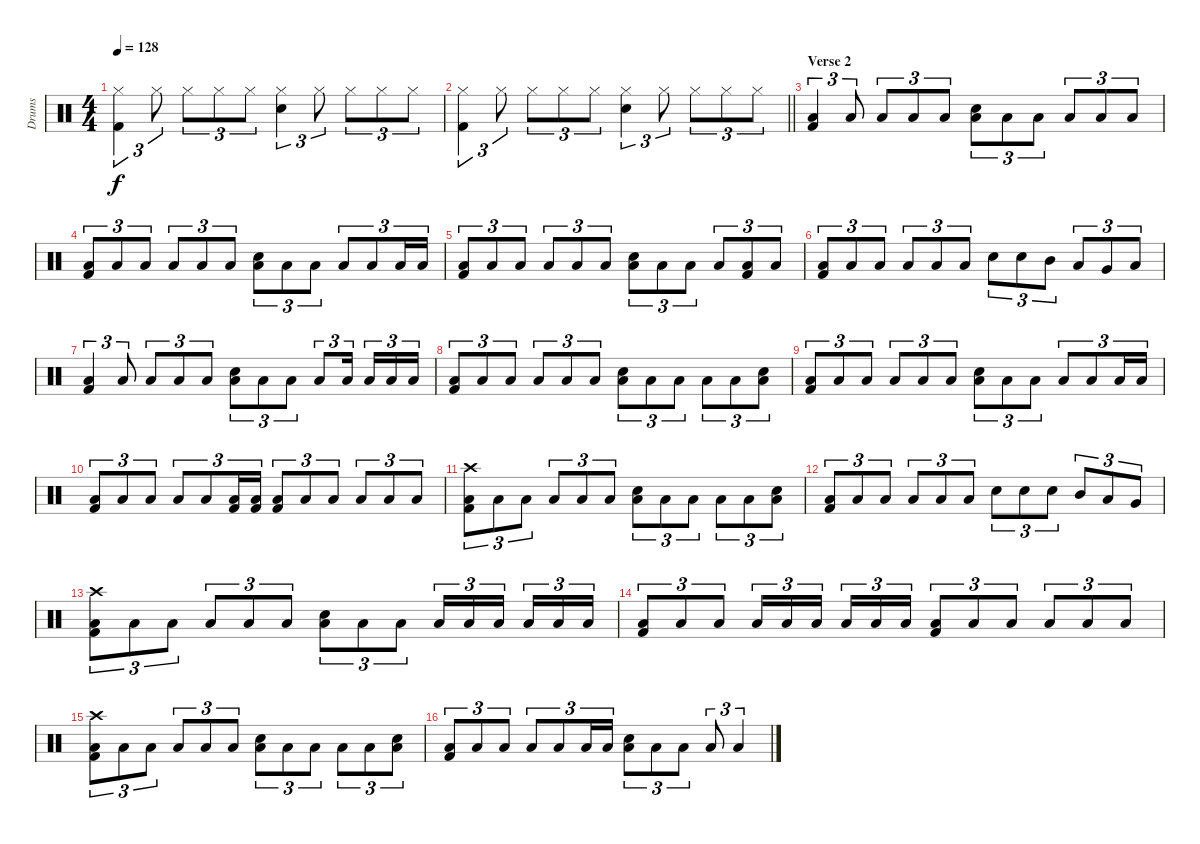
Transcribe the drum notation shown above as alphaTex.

\track ("Drums" "Drums") {instrument percussion}
\staff {score}
\articulation defaults
\ts (4 4)
\tempo 128
\clef neutral
\ks c
("Hi-Hat (closed)" "Kick (hit) 2").4{tu (3 2) dy f} "Hi-Hat (closed)".8{tu (3 2)} "Hi-Hat (closed)".8{tu (3 2)} "Hi-Hat (closed)".8{tu (3 2)} "Hi-Hat (closed)".8{tu (3 2)} ("Hi-Hat (closed)" "Electric Snare (hit)").4{tu (3 2)} "Hi-Hat (closed)".8{tu (3 2)} "Hi-Hat (closed)".8{tu (3 2)} "Hi-Hat (closed)".8{tu (3 2)} "Hi-Hat (closed)".8{tu (3 2)} |
\barLineRight lightlight
("Hi-Hat (closed)" "Kick (hit) 2").4{tu (3 2)} "Hi-Hat (closed)".8{tu (3 2)} "Hi-Hat (closed)".8{tu (3 2)} "Hi-Hat (closed)".8{tu (3 2)} "Hi-Hat (closed)".8{tu (3 2)} ("Hi-Hat (closed)" "Electric Snare (hit)").4{tu (3 2)} "Hi-Hat (closed)".8{tu (3 2)} "Hi-Hat (closed)".8{tu (3 2)} "Hi-Hat (closed)".8{tu (3 2)} "Hi-Hat (closed)".8{tu (3 2)} |
\section ("" "Verse 2")
("Low Floor Tom (hit)" "Kick (hit) 2").4{tu (3 2)} "Low Floor Tom (hit)".8{tu (3 2)} "Low Floor Tom (hit)".8{tu (3 2)} "Low Floor Tom (hit)".8{tu (3 2)} "Low Floor Tom (hit)".8{tu (3 2)} ("Low Floor Tom (hit)" "Electric Snare (hit)").8{tu (3 2)} "Low Floor Tom (hit)".8{tu (3 2)} "Low Floor Tom (hit)".8{tu (3 2)} "Low Floor Tom (hit)".8{tu (3 2)} "Low Floor Tom (hit)".8{tu (3 2)} "Low Floor Tom (hit)".8{tu (3 2)} |
("Low Floor Tom (hit)" "Kick (hit) 2").8{tu (3 2)} "Low Floor Tom (hit)".8{tu (3 2)} "Low Floor Tom (hit)".8{tu (3 2)} "Low Floor Tom (hit)".8{tu (3 2)} "Low Floor Tom (hit)".8{tu (3 2)} "Low Floor Tom (hit)".8{tu (3 2)} ("Low Floor Tom (hit)" "Electric Snare (hit)").8{tu (3 2)} "Low Floor Tom (hit)".8{tu (3 2)} "Low Floor Tom (hit)".8{tu (3 2)} "Low Floor Tom (hit)".8{tu (3 2)} "Low Floor Tom (hit)".8{tu (3 2)} "Low Floor Tom (hit)".16{tu (3 2)} "Low Floor Tom (hit)".16{tu (3 2)} |
("Low Floor Tom (hit)" "Kick (hit) 2").8{tu (3 2)} "Low Floor Tom (hit)".8{tu (3 2)} "Low Floor Tom (hit)".8{tu (3 2)} "Low Floor Tom (hit)".8{tu (3 2)} "Low Floor Tom (hit)".8{tu (3 2)} "Low Floor Tom (hit)".8{tu (3 2)} ("Low Floor Tom (hit)" "Electric Snare (hit)").8{tu (3 2)} "Low Floor Tom (hit)".8{tu (3 2)} "Low Floor Tom (hit)".8{tu (3 2)} "Low Floor Tom (hit)".8{tu (3 2)} ("Low Floor Tom (hit)" "Kick (hit) 2").8{tu (3 2)} "Low Floor Tom (hit)".8{tu (3 2)} |
("Low Floor Tom (hit)" "Kick (hit) 2").8{tu (3 2)} "Low Floor Tom (hit)".8{tu (3 2)} "Low Floor Tom (hit)".8{tu (3 2)} "Low Floor Tom (hit)".8{tu (3 2)} "Low Floor Tom (hit)".8{tu (3 2)} "Low Floor Tom (hit)".8{tu (3 2)} "Electric Snare (hit)".8{tu (3 2)} "Electric Snare (hit)".8{tu (3 2)} "Mid Tom (hit)".8{tu (3 2)} "Low Tom (hit)".8{tu (3 2)} "Very Low Tom (hit)".8{tu (3 2)} "Low Floor Tom (hit)".8{tu (3 2)} |
("Low Floor Tom (hit)" "Kick (hit) 2").4{tu (3 2)} "Low Floor Tom (hit)".8{tu (3 2)} "Low Floor Tom (hit)".8{tu (3 2)} "Low Floor Tom (hit)".8{tu (3 2)} "Low Floor Tom (hit)".8{tu (3 2)} ("Low Floor Tom (hit)" "Electric Snare (hit)").8{tu (3 2)} "Low Floor Tom (hit)".8{tu (3 2)} "Low Floor Tom (hit)".8{tu (3 2)} "Low Floor Tom (hit)".8{tu (3 2)} "Low Floor Tom (hit)".16{tu (3 2) beam splitsecondary} "Low Floor Tom (hit)".16{tu (3 2)} "Low Floor Tom (hit)".16{tu (3 2)} "Low Floor Tom (hit)".16{tu (3 2)} |
("Low Floor Tom (hit)" "Kick (hit) 2").8{tu (3 2)} "Low Floor Tom (hit)".8{tu (3 2)} "Low Floor Tom (hit)".8{tu (3 2)} "Low Floor Tom (hit)".8{tu (3 2)} "Low Floor Tom (hit)".8{tu (3 2)} "Low Floor Tom (hit)".8{tu (3 2)} ("Low Floor Tom (hit)" "Electric Snare (hit)").8{tu (3 2)} "Low Floor Tom (hit)".8{tu (3 2)} "Low Floor Tom (hit)".8{tu (3 2)} "Low Floor Tom (hit)".8{tu (3 2)} "Low Floor Tom (hit)".8{tu (3 2)} ("Low Floor Tom (hit)" "Electric Snare (hit)").8{tu (3 2)} |
("Low Floor Tom (hit)" "Kick (hit) 2").8{tu (3 2)} "Low Floor Tom (hit)".8{tu (3 2)} "Low Floor Tom (hit)".8{tu (3 2)} "Low Floor Tom (hit)".8{tu (3 2)} "Low Floor Tom (hit)".8{tu (3 2)} "Low Floor Tom (hit)".8{tu (3 2)} ("Low Floor Tom (hit)" "Electric Snare (hit)").8{tu (3 2)} "Low Floor Tom (hit)".8{tu (3 2)} "Low Floor Tom (hit)".8{tu (3 2)} "Low Floor Tom (hit)".8{tu (3 2)} "Low Floor Tom (hit)".8{tu (3 2)} "Low Floor Tom (hit)".16{tu (3 2)} "Low Floor Tom (hit)".16{tu (3 2)} |
("Low Floor Tom (hit)" "Kick (hit) 2").8{tu (3 2)} "Low Floor Tom (hit)".8{tu (3 2)} "Low Floor Tom (hit)".8{tu (3 2)} "Low Floor Tom (hit)".8{tu (3 2)} "Low Floor Tom (hit)".8{tu (3 2)} ("Low Floor Tom (hit)" "Kick (hit) 2").16{tu (3 2)} ("Low Floor Tom (hit)" "Kick (hit) 2").16{tu (3 2)} ("Low Floor Tom (hit)" "Kick (hit) 2").8{tu (3 2)} "Low Floor Tom (hit)".8{tu (3 2)} "Low Floor Tom (hit)".8{tu (3 2)} "Low Floor Tom (hit)".8{tu (3 2)} "Low Floor Tom (hit)".8{tu (3 2)} "Low Floor Tom (hit)".8{tu (3 2)} |
("Crash high (hit)" "Low Floor Tom (hit)" "Kick (hit) 2").8{tu (3 2)} "Low Floor Tom (hit)".8{tu (3 2)} "Low Floor Tom (hit)".8{tu (3 2)} "Low Floor Tom (hit)".8{tu (3 2)} "Low Floor Tom (hit)".8{tu (3 2)} "Low Floor Tom (hit)".8{tu (3 2)} ("Low Floor Tom (hit)" "Electric Snare (hit)").8{tu (3 2)} "Low Floor Tom (hit)".8{tu (3 2)} "Low Floor Tom (hit)".8{tu (3 2)} "Low Floor Tom (hit)".8{tu (3 2)} "Low Floor Tom (hit)".8{tu (3 2)} ("Low Floor Tom (hit)" "Electric Snare (hit)").8{tu (3 2)} |
("Low Floor Tom (hit)" "Kick (hit) 2").8{tu (3 2)} "Low Floor Tom (hit)".8{tu (3 2)} "Low Floor Tom (hit)".8{tu (3 2)} "Low Floor Tom (hit)".8{tu (3 2)} "Low Floor Tom (hit)".8{tu (3 2)} "Low Floor Tom (hit)".8{tu (3 2)} "Electric Snare (hit)".8{tu (3 2)} "Electric Snare (hit)".8{tu (3 2)} "Electric Snare (hit)".8{tu (3 2)} "Mid Tom (hit)".8{tu (3 2)} "Low Tom (hit)".8{tu (3 2)} "Very Low Tom (hit)".8{tu (3 2)} |
("Crash high (hit)" "Low Floor Tom (hit)" "Kick (hit) 2").8{tu (3 2)} "Low Floor Tom (hit)".8{tu (3 2)} "Low Floor Tom (hit)".8{tu (3 2)} "Low Floor Tom (hit)".8{tu (3 2)} "Low Floor Tom (hit)".8{tu (3 2)} "Low Floor Tom (hit)".8{tu (3 2)} ("Low Floor Tom (hit)" "Electric Snare (hit)").8{tu (3 2)} "Low Floor Tom (hit)".8{tu (3 2)} "Low Floor Tom (hit)".8{tu (3 2)} "Low Floor Tom (hit)".16{tu (3 2)} "Low Floor Tom (hit)".16{tu (3 2)} "Low Floor Tom (hit)".16{tu (3 2) beam splitsecondary} "Low Floor Tom (hit)".16{tu (3 2)} "Low Floor Tom (hit)".16{tu (3 2)} "Low Floor Tom (hit)".16{tu (3 2)} |
("Low Floor Tom (hit)" "Kick (hit) 2").8{tu (3 2)} "Low Floor Tom (hit)".8{tu (3 2)} "Low Floor Tom (hit)".8{tu (3 2)} "Low Floor Tom (hit)".16{tu (3 2)} "Low Floor Tom (hit)".16{tu (3 2)} "Low Floor Tom (hit)".16{tu (3 2) beam splitsecondary} "Low Floor Tom (hit)".16{tu (3 2)} "Low Floor Tom (hit)".16{tu (3 2)} "Low Floor Tom (hit)".16{tu (3 2)} ("Low Floor Tom (hit)" "Kick (hit) 2").8{tu (3 2)} "Low Floor Tom (hit)".8{tu (3 2)} "Low Floor Tom (hit)".8{tu (3 2)} "Low Floor Tom (hit)".8{tu (3 2)} "Low Floor Tom (hit)".8{tu (3 2)} "Low Floor Tom (hit)".8{tu (3 2)} |
("Crash high (hit)" "Low Floor Tom (hit)" "Kick (hit) 2").8{tu (3 2)} "Low Floor Tom (hit)".8{tu (3 2)} "Low Floor Tom (hit)".8{tu (3 2)} "Low Floor Tom (hit)".8{tu (3 2)} "Low Floor Tom (hit)".8{tu (3 2)} "Low Floor Tom (hit)".8{tu (3 2)} ("Low Floor Tom (hit)" "Electric Snare (hit)").8{tu (3 2)} "Low Floor Tom (hit)".8{tu (3 2)} "Low Floor Tom (hit)".8{tu (3 2)} "Low Floor Tom (hit)".8{tu (3 2)} "Low Floor Tom (hit)".8{tu (3 2)} ("Low Floor Tom (hit)" "Electric Snare (hit)").8{tu (3 2)} |
("Low Floor Tom (hit)" "Kick (hit) 2").8{tu (3 2)} "Low Floor Tom (hit)".8{tu (3 2)} "Low Floor Tom (hit)".8{tu (3 2)} "Low Floor Tom (hit)".8{tu (3 2)} "Low Floor Tom (hit)".8{tu (3 2)} "Low Floor Tom (hit)".16{tu (3 2)} "Low Floor Tom (hit)".16{tu (3 2)} ("Low Floor Tom (hit)" "Electric Snare (hit)").8{tu (3 2)} "Low Floor Tom (hit)".8{tu (3 2)} "Low Floor Tom (hit)".8{tu (3 2)} "Low Floor Tom (hit)".8{tu (3 2)} "Low Floor Tom (hit)".4{tu (3 2)}
